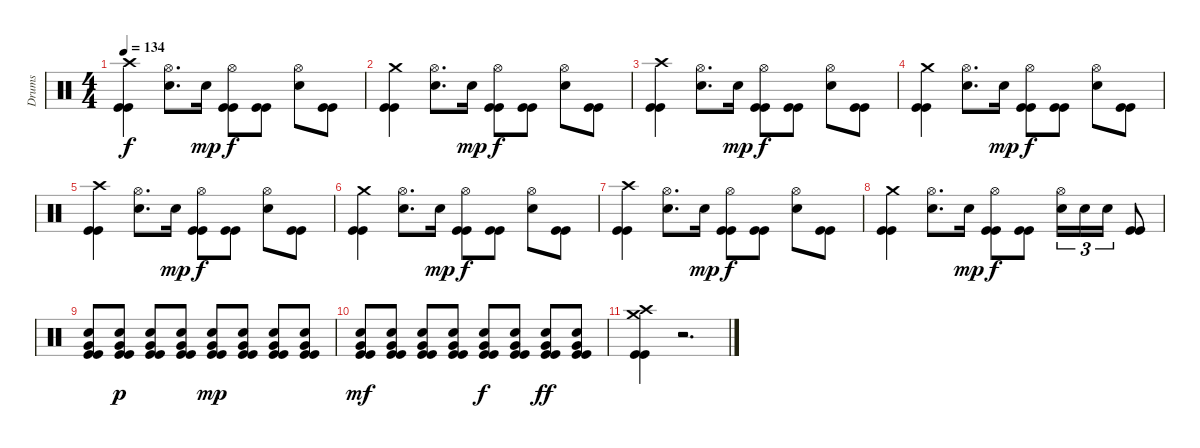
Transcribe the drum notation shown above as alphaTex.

\track ("Drums" "Drums") {instrument percussion}
\staff {score}
\articulation defaults
\ts (4 4)
\tempo 134
\clef neutral
\ks c
("Crash high (hit)" "Kick (hit)" "Kick (hit)").4{dy f} ("Hi-Hat (open)" "Electric Snare (hit)").8{d} "Electric Snare (hit)".16{dy mp} ("Hi-Hat (open)" "Kick (hit)" "Kick (hit)").8{dy f} ("Kick (hit)" "Kick (hit)").8 ("Hi-Hat (open)" "Electric Snare (hit)").8 ("Kick (hit)" "Kick (hit)").8 |
("Crash medium (hit)" "Kick (hit)" "Kick (hit)").4 ("Hi-Hat (open)" "Electric Snare (hit)").8{d} "Electric Snare (hit)".16{dy mp} ("Hi-Hat (open)" "Kick (hit)" "Kick (hit)").8{dy f} ("Kick (hit)" "Kick (hit)").8 ("Hi-Hat (open)" "Electric Snare (hit)").8 ("Kick (hit)" "Kick (hit)").8 |
("Crash high (hit)" "Kick (hit)" "Kick (hit)").4 ("Hi-Hat (open)" "Electric Snare (hit)").8{d} "Electric Snare (hit)".16{dy mp} ("Hi-Hat (open)" "Kick (hit)" "Kick (hit)").8{dy f} ("Kick (hit)" "Kick (hit)").8 ("Hi-Hat (open)" "Electric Snare (hit)").8 ("Kick (hit)" "Kick (hit)").8 |
("Crash medium (hit)" "Kick (hit)" "Kick (hit)").4 ("Hi-Hat (open)" "Electric Snare (hit)").8{d} "Electric Snare (hit)".16{dy mp} ("Hi-Hat (open)" "Kick (hit)" "Kick (hit)").8{dy f} ("Kick (hit)" "Kick (hit)").8 ("Hi-Hat (open)" "Electric Snare (hit)").8 ("Kick (hit)" "Kick (hit)").8 |
("Crash high (hit)" "Kick (hit)" "Kick (hit)").4 ("Hi-Hat (open)" "Electric Snare (hit)").8{d} "Electric Snare (hit)".16{dy mp} ("Hi-Hat (open)" "Kick (hit)" "Kick (hit)").8{dy f} ("Kick (hit)" "Kick (hit)").8 ("Hi-Hat (open)" "Electric Snare (hit)").8 ("Kick (hit)" "Kick (hit)").8 |
("Crash medium (hit)" "Kick (hit)" "Kick (hit)").4 ("Hi-Hat (open)" "Electric Snare (hit)").8{d} "Electric Snare (hit)".16{dy mp} ("Hi-Hat (open)" "Kick (hit)" "Kick (hit)").8{dy f} ("Kick (hit)" "Kick (hit)").8 ("Hi-Hat (open)" "Electric Snare (hit)").8 ("Kick (hit)" "Kick (hit)").8 |
("Crash high (hit)" "Kick (hit)" "Kick (hit)").4 ("Hi-Hat (open)" "Electric Snare (hit)").8{d} "Electric Snare (hit)".16{dy mp} ("Hi-Hat (open)" "Kick (hit)" "Kick (hit)").8{dy f} ("Kick (hit)" "Kick (hit)").8 ("Hi-Hat (open)" "Electric Snare (hit)").8 ("Kick (hit)" "Kick (hit)").8 |
("Crash medium (hit)" "Kick (hit)" "Kick (hit)").4 ("Hi-Hat (open)" "Electric Snare (hit)").8{d} "Electric Snare (hit)".16{dy mp} ("Hi-Hat (open)" "Kick (hit)" "Kick (hit)").8{dy f} ("Kick (hit)" "Kick (hit)").8 ("Hi-Hat (open)" "Electric Snare (hit)").16{tu (3 2)} "Electric Snare (hit)".16{tu (3 2)} "Electric Snare (hit)".16{tu (3 2)} ("Kick (hit)" "Kick (hit)").8 |
("Electric Snare (hit)" "Very Low Tom (hit)" "Kick (hit)" "Kick (hit)").8 ("Electric Snare (hit)" "Very Low Tom (hit)" "Kick (hit)" "Kick (hit)").8{dy p} ("Electric Snare (hit)" "Very Low Tom (hit)" "Kick (hit)" "Kick (hit)").8 ("Electric Snare (hit)" "Very Low Tom (hit)" "Kick (hit)" "Kick (hit)").8 ("Electric Snare (hit)" "Very Low Tom (hit)" "Kick (hit)" "Kick (hit)").8{dy mp} ("Electric Snare (hit)" "Very Low Tom (hit)" "Kick (hit)" "Kick (hit)").8 ("Electric Snare (hit)" "Very Low Tom (hit)" "Kick (hit)" "Kick (hit)").8 ("Electric Snare (hit)" "Very Low Tom (hit)" "Kick (hit)" "Kick (hit)").8 |
("Electric Snare (hit)" "Very Low Tom (hit)" "Kick (hit)" "Kick (hit)").8{dy mf} ("Electric Snare (hit)" "Very Low Tom (hit)" "Kick (hit)" "Kick (hit)").8 ("Electric Snare (hit)" "Very Low Tom (hit)" "Kick (hit)" "Kick (hit)").8 ("Electric Snare (hit)" "Very Low Tom (hit)" "Kick (hit)" "Kick (hit)").8 ("Electric Snare (hit)" "Very Low Tom (hit)" "Kick (hit)" "Kick (hit)").8{dy f} ("Electric Snare (hit)" "Very Low Tom (hit)" "Kick (hit)" "Kick (hit)").8 ("Electric Snare (hit)" "Very Low Tom (hit)" "Kick (hit)" "Kick (hit)").8{dy ff} ("Electric Snare (hit)" "Very Low Tom (hit)" "Kick (hit)" "Kick (hit)").8 |
("Crash medium (hit)" "Crash high (hit)" "Kick (hit)" "Kick (hit)").4 r.2{d}
